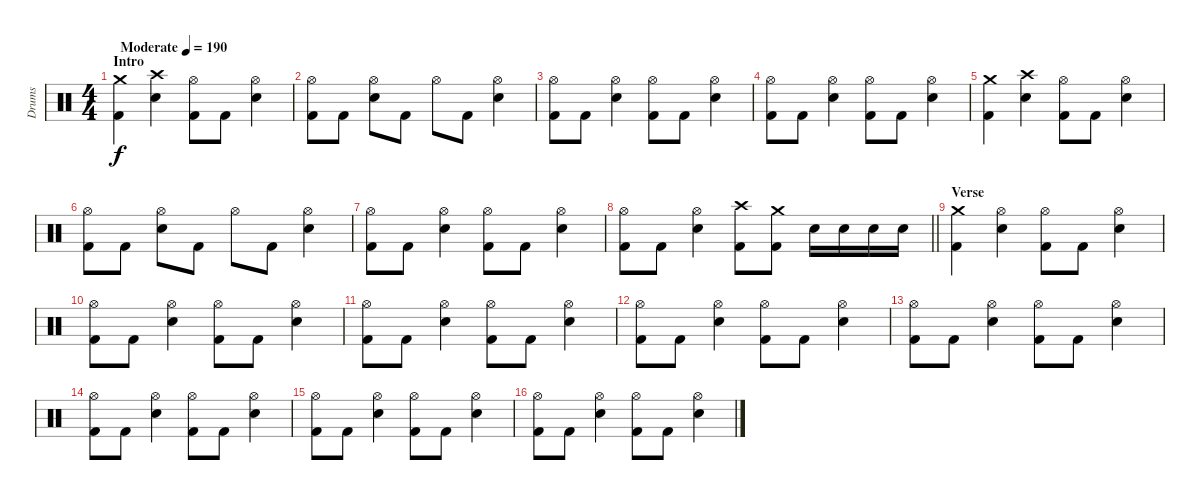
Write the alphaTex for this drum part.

\track ("Drums" "Drums") {instrument percussion}
\staff {score}
\articulation defaults
\ts (4 4)
\section ("" "Intro")
\tempo (190 "Moderate")
\clef neutral
\ks c
("Crash medium (hit)" "Kick (hit) 2").4{dy f} ("Crash high (hit)" "Electric Snare (hit)").4 ("Hi-Hat (open)" "Kick (hit) 2").8 "Kick (hit) 2".8 ("Hi-Hat (open)" "Electric Snare (hit)").4 |
("Hi-Hat (open)" "Kick (hit) 2").8 "Kick (hit) 2".8 ("Hi-Hat (open)" "Electric Snare (hit)").8 "Kick (hit) 2".8 "Hi-Hat (open)".8 "Kick (hit) 2".8 ("Hi-Hat (open)" "Electric Snare (hit)").4 |
("Hi-Hat (open)" "Kick (hit) 2").8 "Kick (hit) 2".8 ("Hi-Hat (open)" "Electric Snare (hit)").4 ("Hi-Hat (open)" "Kick (hit) 2").8 "Kick (hit) 2".8 ("Hi-Hat (open)" "Electric Snare (hit)").4 |
("Hi-Hat (open)" "Kick (hit) 2").8 "Kick (hit) 2".8 ("Hi-Hat (open)" "Electric Snare (hit)").4 ("Hi-Hat (open)" "Kick (hit) 2").8 "Kick (hit) 2".8 ("Hi-Hat (open)" "Electric Snare (hit)").4 |
("Crash medium (hit)" "Kick (hit) 2").4 ("Crash high (hit)" "Electric Snare (hit)").4 ("Hi-Hat (open)" "Kick (hit) 2").8 "Kick (hit) 2".8 ("Hi-Hat (open)" "Electric Snare (hit)").4 |
("Hi-Hat (open)" "Kick (hit) 2").8 "Kick (hit) 2".8 ("Hi-Hat (open)" "Electric Snare (hit)").8 "Kick (hit) 2".8 "Hi-Hat (open)".8 "Kick (hit) 2".8 ("Hi-Hat (open)" "Electric Snare (hit)").4 |
("Hi-Hat (open)" "Kick (hit) 2").8 "Kick (hit) 2".8 ("Hi-Hat (open)" "Electric Snare (hit)").4 ("Hi-Hat (open)" "Kick (hit) 2").8 "Kick (hit) 2".8 ("Hi-Hat (open)" "Electric Snare (hit)").4 |
\barLineRight lightlight
("Hi-Hat (open)" "Kick (hit) 2").8 "Kick (hit) 2".8 ("Hi-Hat (open)" "Electric Snare (hit)").4 ("Crash high (hit)" "Kick (hit) 2").8 ("Crash medium (hit)" "Kick (hit) 2").8 "Electric Snare (hit)".16 "Electric Snare (hit)".16 "Electric Snare (hit)".16 "Electric Snare (hit)".16 |
\section ("" "Verse")
("Crash medium (hit)" "Kick (hit) 2").4 ("Hi-Hat (open)" "Electric Snare (hit)").4 ("Hi-Hat (open)" "Kick (hit) 2").8 "Kick (hit) 2".8 ("Hi-Hat (open)" "Electric Snare (hit)").4 |
("Hi-Hat (open)" "Kick (hit) 2").8 "Kick (hit) 2".8 ("Hi-Hat (open)" "Electric Snare (hit)").4 ("Hi-Hat (open)" "Kick (hit) 2").8 "Kick (hit) 2".8 ("Hi-Hat (open)" "Electric Snare (hit)").4 |
("Hi-Hat (open)" "Kick (hit) 2").8 "Kick (hit) 2".8 ("Hi-Hat (open)" "Electric Snare (hit)").4 ("Hi-Hat (open)" "Kick (hit) 2").8 "Kick (hit) 2".8 ("Hi-Hat (open)" "Electric Snare (hit)").4 |
("Hi-Hat (open)" "Kick (hit) 2").8 "Kick (hit) 2".8 ("Hi-Hat (open)" "Electric Snare (hit)").4 ("Hi-Hat (open)" "Kick (hit) 2").8 "Kick (hit) 2".8 ("Hi-Hat (open)" "Electric Snare (hit)").4 |
("Hi-Hat (open)" "Kick (hit) 2").8 "Kick (hit) 2".8 ("Hi-Hat (open)" "Electric Snare (hit)").4 ("Hi-Hat (open)" "Kick (hit) 2").8 "Kick (hit) 2".8 ("Hi-Hat (open)" "Electric Snare (hit)").4 |
("Hi-Hat (open)" "Kick (hit) 2").8 "Kick (hit) 2".8 ("Hi-Hat (open)" "Electric Snare (hit)").4 ("Hi-Hat (open)" "Kick (hit) 2").8 "Kick (hit) 2".8 ("Hi-Hat (open)" "Electric Snare (hit)").4 |
("Hi-Hat (open)" "Kick (hit) 2").8 "Kick (hit) 2".8 ("Hi-Hat (open)" "Electric Snare (hit)").4 ("Hi-Hat (open)" "Kick (hit) 2").8 "Kick (hit) 2".8 ("Hi-Hat (open)" "Electric Snare (hit)").4 |
("Hi-Hat (open)" "Kick (hit) 2").8 "Kick (hit) 2".8 ("Hi-Hat (open)" "Electric Snare (hit)").4 ("Hi-Hat (open)" "Kick (hit) 2").8 "Kick (hit) 2".8 ("Hi-Hat (open)" "Electric Snare (hit)").4
